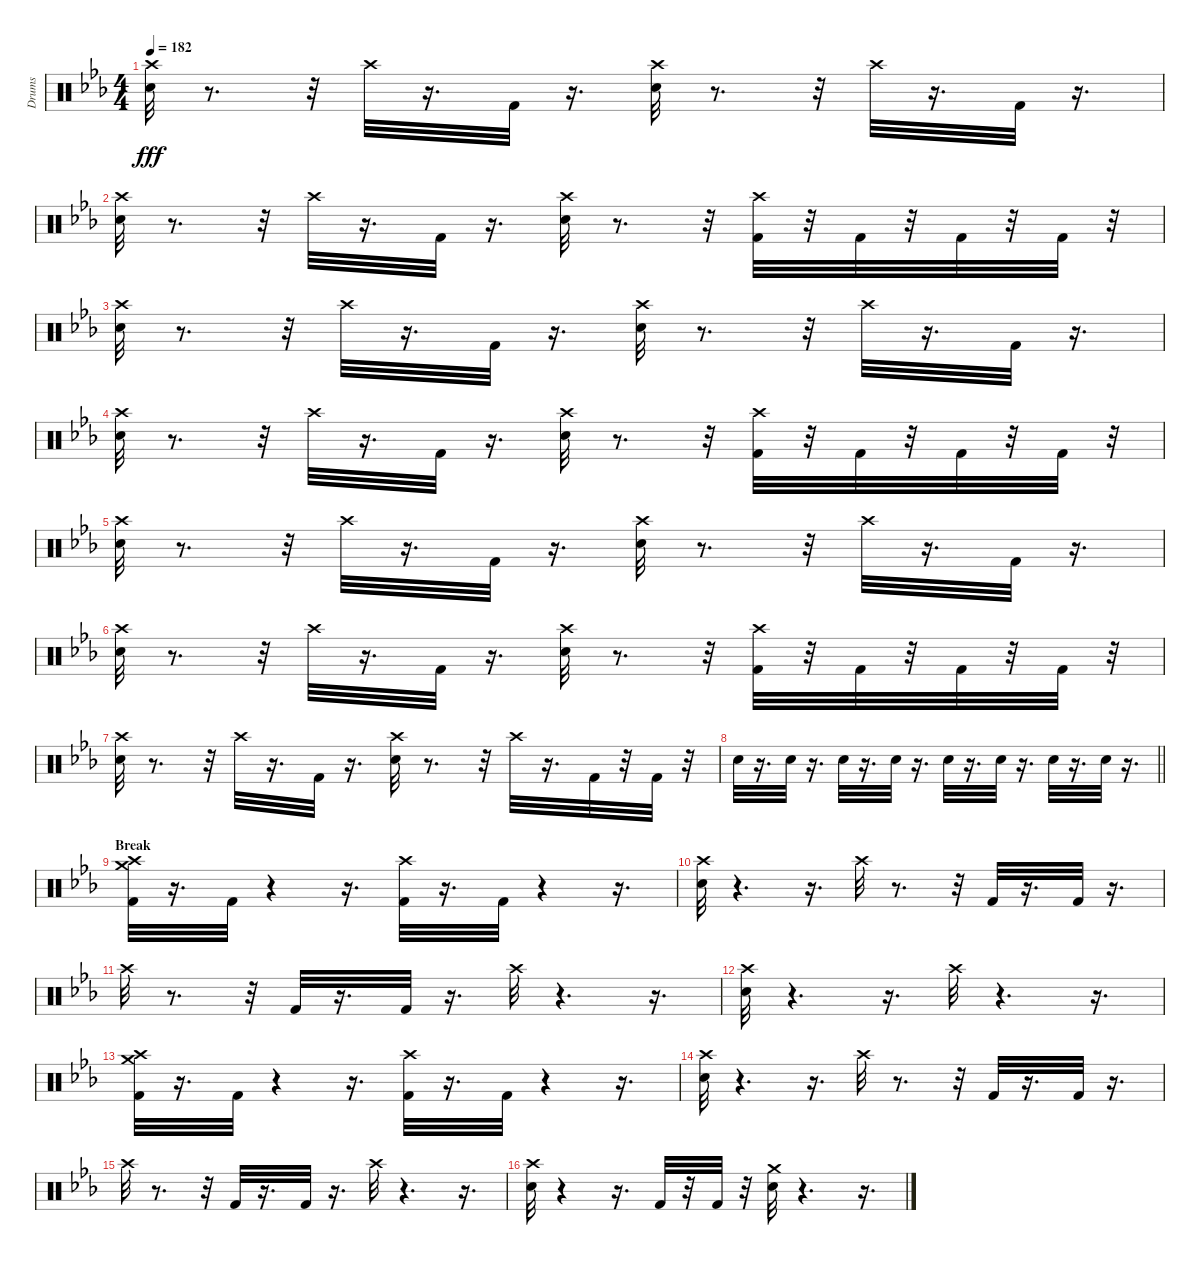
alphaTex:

\track ("Drums" "Drums") {instrument percussion}
\staff {score}
\articulation defaults
\ts (4 4)
\tempo 182
\clef neutral
\ks cminor
("Snare (hit) 2" "Crash high (hit)").32{dy fff} r.8{d} r.32 "Crash high (hit)".32 r.16{d} "Kick (hit) 2".32 r.16{d} ("Crash high (hit)" "Snare (hit) 2").32 r.8{d} r.32 "Crash high (hit)".32 r.16{d} "Kick (hit) 2".32 r.16{d} |
("Crash high (hit)" "Snare (hit) 2").32 r.8{d} r.32 "Crash high (hit)".32 r.16{d} "Kick (hit) 2".32 r.16{d} ("Crash high (hit)" "Snare (hit) 2").32 r.8{d} r.32 ("Crash high (hit)" "Kick (hit) 2").32 r.32 "Kick (hit) 2".32 r.32 "Kick (hit) 2".32 r.32 "Kick (hit) 2".32 r.32 |
("Snare (hit) 2" "Crash high (hit)").32 r.8{d} r.32 "Crash high (hit)".32 r.16{d} "Kick (hit) 2".32 r.16{d} ("Crash high (hit)" "Snare (hit) 2").32 r.8{d} r.32 "Crash high (hit)".32 r.16{d} "Kick (hit) 2".32 r.16{d} |
("Crash high (hit)" "Snare (hit) 2").32 r.8{d} r.32 "Crash high (hit)".32 r.16{d} "Kick (hit) 2".32 r.16{d} ("Crash high (hit)" "Snare (hit) 2").32 r.8{d} r.32 ("Crash high (hit)" "Kick (hit) 2").32 r.32 "Kick (hit) 2".32 r.32 "Kick (hit) 2".32 r.32 "Kick (hit) 2".32 r.32 |
("Snare (hit) 2" "Crash high (hit)").32 r.8{d} r.32 "Crash high (hit)".32 r.16{d} "Kick (hit) 2".32 r.16{d} ("Crash high (hit)" "Snare (hit) 2").32 r.8{d} r.32 "Crash high (hit)".32 r.16{d} "Kick (hit) 2".32 r.16{d} |
("Crash high (hit)" "Snare (hit) 2").32 r.8{d} r.32 "Crash high (hit)".32 r.16{d} "Kick (hit) 2".32 r.16{d} ("Crash high (hit)" "Snare (hit) 2").32 r.8{d} r.32 ("Crash high (hit)" "Kick (hit) 2").32 r.32 "Kick (hit) 2".32 r.32 "Kick (hit) 2".32 r.32 "Kick (hit) 2".32 r.32 |
("Snare (hit) 2" "Crash high (hit)").32 r.8{d} r.32 "Crash high (hit)".32 r.16{d} "Kick (hit) 2".32 r.16{d} ("Crash high (hit)" "Snare (hit) 2").32 r.8{d} r.32 "Crash high (hit)".32 r.16{d} "Kick (hit) 2".32 r.32 "Kick (hit) 2".32 r.32 |
\barLineRight lightlight "Snare (hit) 2".32
r.16{d} "Snare (hit) 2".32 r.16{d} "Snare (hit) 2".32 r.16{d} "Snare (hit) 2".32 r.16{d} "Snare (hit) 2".32 r.16{d} "Snare (hit) 2".32 r.16{d} "Snare (hit) 2".32 r.16{d} "Snare (hit) 2".32 r.16{d} |
\section ("" "Break")
("Crash medium (hit)" "Crash high (hit)" "Kick (hit) 2").32 r.16{d} "Kick (hit) 2".32 r.4 r.16{d} ("Kick (hit) 2" "Crash high (hit)").32 r.16{d} "Kick (hit) 2".32 r.4 r.16{d} |
("Snare (hit) 2" "Crash high (hit)").32 r.4{d} r.16{d} "Crash high (hit)".32 r.8{d} r.32 "Kick (hit) 2".32 r.16{d} "Kick (hit) 2".32 r.16{d} |
"Crash high (hit)".32 r.8{d} r.32 "Kick (hit) 2".32 r.16{d} "Kick (hit) 2".32 r.16{d} "Crash high (hit)".32 r.4{d} r.16{d} |
("Snare (hit) 2" "Crash high (hit)").32 r.4{d} r.16{d} "Crash high (hit)".32 r.4{d} r.16{d} |
("Crash medium (hit)" "Crash high (hit)" "Kick (hit) 2").32 r.16{d} "Kick (hit) 2".32 r.4 r.16{d} ("Kick (hit) 2" "Crash high (hit)").32 r.16{d} "Kick (hit) 2".32 r.4 r.16{d} |
("Snare (hit) 2" "Crash high (hit)").32 r.4{d} r.16{d} "Crash high (hit)".32 r.8{d} r.32 "Kick (hit) 2".32 r.16{d} "Kick (hit) 2".32 r.16{d} |
"Crash high (hit)".32 r.8{d} r.32 "Kick (hit) 2".32 r.16{d} "Kick (hit) 2".32 r.16{d} "Crash high (hit)".32 r.4{d} r.16{d} |
("Snare (hit) 2" "Crash high (hit)").32 r.4 r.16{d} "Kick (hit) 2".32 r.32 "Kick (hit) 2".32 r.32 ("Crash medium (hit)" "Snare (hit) 2").32 r.4{d} r.16{d}
